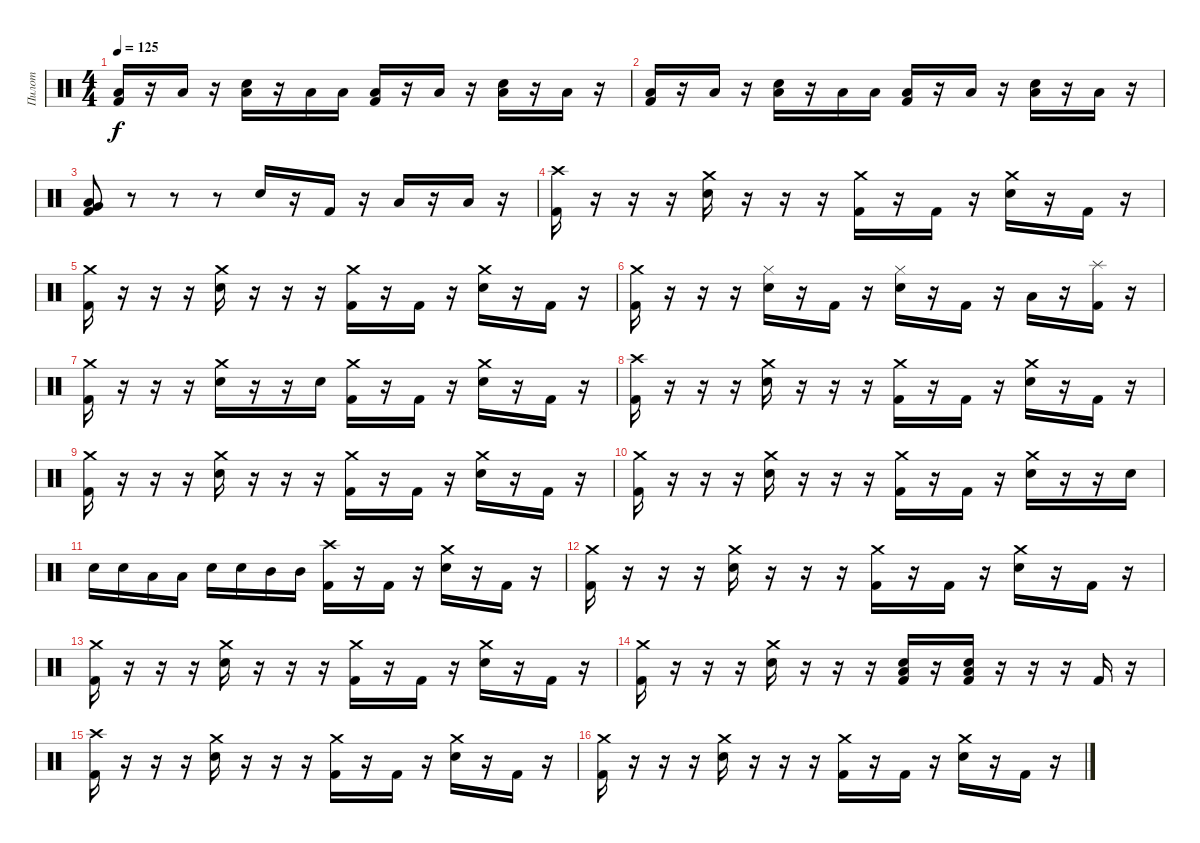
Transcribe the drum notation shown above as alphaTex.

\track ("Пилот" "Пилот") {instrument percussion}
\staff {score}
\articulation defaults
\ts (4 4)
\tempo 125
\clef neutral
\ks c
("Low Tom (hit)" "Kick (hit) 2").16{dy f} r.16 "Low Floor Tom (hit)".16 r.16 ("Low Floor Tom (hit)" "Electric Snare (hit)").16 r.16 "Low Floor Tom (hit)".16 "Low Tom (hit)".16 ("Low Floor Tom (hit)" "Kick (hit) 2").16 r.16 "Low Floor Tom (hit)".16 r.16 ("Low Floor Tom (hit)" "Electric Snare (hit)").16 r.16 "Low Floor Tom (hit)".16 r.16 |
("Low Tom (hit)" "Kick (hit) 2").16 r.16 "Low Floor Tom (hit)".16 r.16 ("Low Floor Tom (hit)" "Electric Snare (hit)").16 r.16 "Low Floor Tom (hit)".16 "Low Tom (hit)".16 ("Low Floor Tom (hit)" "Kick (hit) 2").16 r.16 "Low Floor Tom (hit)".16 r.16 ("Low Floor Tom (hit)" "Electric Snare (hit)").16 r.16 "Low Floor Tom (hit)".16 r.16 |
("Low Floor Tom (hit)" "Kick (hit) 2" "Very Low Tom (hit)").8 r.8 r.8 r.8 "Electric Snare (hit)".16 r.16 "Kick (hit) 2".16 r.16 "Low Tom (hit)".16 r.16 "Low Floor Tom (hit)".16 r.16 |
("Crash high (hit)" "Kick (hit) 2").16 r.16 r.16 r.16 ("Crash medium (hit)" "Electric Snare (hit)").16 r.16 r.16 r.16 ("Crash medium (hit)" "Kick (hit) 2").16 r.16 "Kick (hit) 2".16 r.16 ("Crash medium (hit)" "Electric Snare (hit)").16 r.16 "Kick (hit) 2".16 r.16 |
("Crash medium (hit)" "Kick (hit) 2").16 r.16 r.16 r.16 ("Crash medium (hit)" "Electric Snare (hit)").16 r.16 r.16 r.16 ("Crash medium (hit)" "Kick (hit) 2").16 r.16 "Kick (hit) 2".16 r.16 ("Crash medium (hit)" "Electric Snare (hit)").16 r.16 "Kick (hit) 2".16 r.16 |
("Crash medium (hit)" "Kick (hit) 2").16 r.16 r.16 r.16 ("Hi-Hat (closed)" "Electric Snare (hit)").16 r.16 "Kick (hit) 2".16 r.16 ("Hi-Hat (closed)" "Electric Snare (hit)").16 r.16 "Kick (hit) 2".16 r.16 "Low Floor Tom (hit)".16 r.16 ("Splash (hit)" "Kick (hit) 2").16 r.16 |
("Crash medium (hit)" "Kick (hit) 2").16 r.16 r.16 r.16 ("Crash medium (hit)" "Electric Snare (hit)").16 r.16 r.16 "Electric Snare (hit)".16 ("Crash medium (hit)" "Kick (hit) 2").16 r.16 "Kick (hit) 2".16 r.16 ("Crash medium (hit)" "Electric Snare (hit)").16 r.16 "Kick (hit) 2".16 r.16 |
("Crash high (hit)" "Kick (hit) 2").16 r.16 r.16 r.16 ("Crash medium (hit)" "Electric Snare (hit)").16 r.16 r.16 r.16 ("Crash medium (hit)" "Kick (hit) 2").16 r.16 "Kick (hit) 2".16 r.16 ("Crash medium (hit)" "Electric Snare (hit)").16 r.16 "Kick (hit) 2".16 r.16 |
("Crash medium (hit)" "Kick (hit) 2").16 r.16 r.16 r.16 ("Crash medium (hit)" "Electric Snare (hit)").16 r.16 r.16 r.16 ("Crash medium (hit)" "Kick (hit) 2").16 r.16 "Kick (hit) 2".16 r.16 ("Crash medium (hit)" "Electric Snare (hit)").16 r.16 "Kick (hit) 2".16 r.16 |
("Crash medium (hit)" "Kick (hit) 2").16 r.16 r.16 r.16 ("Crash medium (hit)" "Electric Snare (hit)").16 r.16 r.16 r.16 ("Crash medium (hit)" "Kick (hit) 2").16 r.16 "Kick (hit) 2".16 r.16 ("Crash medium (hit)" "Electric Snare (hit)").16 r.16 r.16 "Electric Snare (hit)".16 |
"Electric Snare (hit)".16 "Electric Snare (hit)".16 "Low Tom (hit)".16 "Low Tom (hit)".16 "Electric Snare (hit)".16 "Electric Snare (hit)".16 "Mid Tom (hit)".16 "Mid Tom (hit)".16 ("Crash high (hit)" "Kick (hit) 2").16 r.16 "Kick (hit) 2".16 r.16 ("Crash medium (hit)" "Electric Snare (hit)").16 r.16 "Kick (hit) 2".16 r.16 |
("Crash medium (hit)" "Kick (hit) 2").16 r.16 r.16 r.16 ("Crash medium (hit)" "Electric Snare (hit)").16 r.16 r.16 r.16 ("Crash medium (hit)" "Kick (hit) 2").16 r.16 "Kick (hit) 2".16 r.16 ("Crash medium (hit)" "Electric Snare (hit)").16 r.16 "Kick (hit) 2".16 r.16 |
("Crash medium (hit)" "Kick (hit) 2").16 r.16 r.16 r.16 ("Crash medium (hit)" "Electric Snare (hit)").16 r.16 r.16 r.16 ("Crash medium (hit)" "Kick (hit) 2").16 r.16 "Kick (hit) 2".16 r.16 ("Crash medium (hit)" "Electric Snare (hit)").16 r.16 "Kick (hit) 2".16 r.16 |
("Crash medium (hit)" "Kick (hit) 2").16 r.16 r.16 r.16 ("Crash medium (hit)" "Electric Snare (hit)").16 r.16 r.16 r.16 ("Low Floor Tom (hit)" "Electric Snare (hit)" "Kick (hit) 2").16 r.16 ("Low Floor Tom (hit)" "Electric Snare (hit)" "Kick (hit) 2").16 r.16 r.16 r.16 "Kick (hit) 2".16 r.16 |
("Crash high (hit)" "Kick (hit) 2").16 r.16 r.16 r.16 ("Crash medium (hit)" "Electric Snare (hit)").16 r.16 r.16 r.16 ("Crash medium (hit)" "Kick (hit) 2").16 r.16 "Kick (hit) 2".16 r.16 ("Crash medium (hit)" "Electric Snare (hit)").16 r.16 "Kick (hit) 2".16 r.16 |
("Crash medium (hit)" "Kick (hit) 2").16 r.16 r.16 r.16 ("Crash medium (hit)" "Electric Snare (hit)").16 r.16 r.16 r.16 ("Crash medium (hit)" "Kick (hit) 2").16 r.16 "Kick (hit) 2".16 r.16 ("Crash medium (hit)" "Electric Snare (hit)").16 r.16 "Kick (hit) 2".16 r.16
